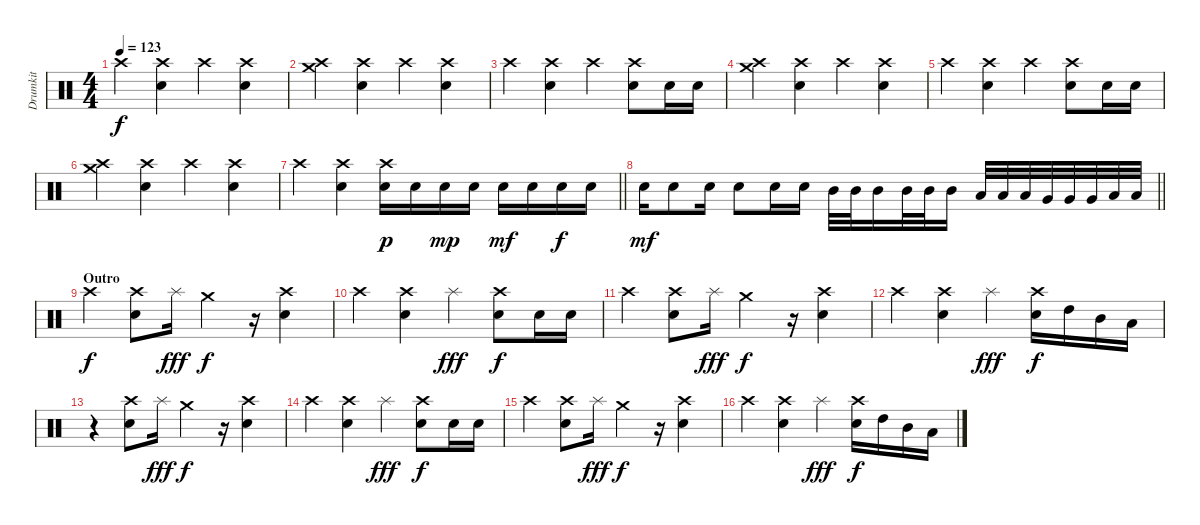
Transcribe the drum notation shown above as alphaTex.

\track ("Drumkit" "Drumkit") {instrument percussion}
\staff {score}
\articulation defaults
\ts (4 4)
\tempo 123
\clef neutral
\ks c "Crash high (hit)".4{dy f}
("Crash high (hit)" "Electric Snare (hit)").4 "Crash high (hit)".4 ("Crash high (hit)" "Electric Snare (hit)").4 |
("Crash medium (hit)" "Crash high (hit)").4 ("Crash high (hit)" "Electric Snare (hit)").4 "Crash high (hit)".4 ("Crash high (hit)" "Electric Snare (hit)").4 |
"Crash high (hit)".4 ("Crash high (hit)" "Electric Snare (hit)").4 "Crash high (hit)".4 ("Crash high (hit)" "Electric Snare (hit)").8 "Electric Snare (hit)".16 "Electric Snare (hit)".16 |
("Crash medium (hit)" "Crash high (hit)").4 ("Crash high (hit)" "Electric Snare (hit)").4 "Crash high (hit)".4 ("Crash high (hit)" "Electric Snare (hit)").4 |
"Crash high (hit)".4 ("Crash high (hit)" "Electric Snare (hit)").4 "Crash high (hit)".4 ("Crash high (hit)" "Electric Snare (hit)").8 "Electric Snare (hit)".16 "Electric Snare (hit)".16 |
("Crash medium (hit)" "Crash high (hit)").4 ("Crash high (hit)" "Electric Snare (hit)").4 "Crash high (hit)".4 ("Crash high (hit)" "Electric Snare (hit)").4 |
\barLineRight lightlight "Crash high (hit)".4
("Crash high (hit)" "Electric Snare (hit)").4 ("Crash high (hit)" "Electric Snare (hit)").16{dy p} "Electric Snare (hit)".16 "Electric Snare (hit)".16{dy mp} "Electric Snare (hit)".16 "Electric Snare (hit)".16{dy mf} "Electric Snare (hit)".16 "Electric Snare (hit)".16{dy f} "Electric Snare (hit)".16 |
\barLineRight lightlight "Electric Snare (hit)".16{dy mf} "Electric Snare (hit)".8 "Electric Snare (hit)".16 "Electric Snare (hit)".8 "Electric Snare (hit)".16 "Electric Snare (hit)".16 "Mid Tom (hit)".32 "Mid Tom (hit)".32 "Mid Tom (hit)".16 "Mid Tom (hit)".32 "Mid Tom (hit)".32 "Mid Tom (hit)".16 "Low Tom (hit)".32 "Low Tom (hit)".32 "Low Tom (hit)".32 "Very Low Tom (hit)".32 "Very Low Tom (hit)".32 "Very Low Tom (hit)".32 "Low Floor Tom (hit)".32 "Low Floor Tom (hit)".32
|
\section ("" "Outro")
"Crash high (hit)".4{dy f} ("Crash high (hit)" "Electric Snare (hit)").8 "Splash (hit)".16{dy fff} "Crash medium (hit)".4{dy f} r.16 ("Crash high (hit)" "Electric Snare (hit)").4 |
"Crash high (hit)".4 ("Crash high (hit)" "Electric Snare (hit)").4 "Splash (hit)".4{dy fff} ("Crash high (hit)" "Electric Snare (hit)").8{dy f} "Electric Snare (hit)".16 "Electric Snare (hit)".16 |
"Crash high (hit)".4 ("Crash high (hit)" "Electric Snare (hit)").8 "Splash (hit)".16{dy fff} "Crash medium (hit)".4{dy f} r.16 ("Crash high (hit)" "Electric Snare (hit)").4 |
"Crash high (hit)".4 ("Crash high (hit)" "Electric Snare (hit)").4 "Splash (hit)".4{dy fff} ("Crash high (hit)" "Electric Snare (hit)").16{dy f} "High Tom (hit)".16 "Mid Tom (hit)".16 "Low Tom (hit)".16 |
r.4 ("Crash high (hit)" "Electric Snare (hit)").8 "Splash (hit)".16{dy fff} "Crash medium (hit)".4{dy f} r.16 ("Crash high (hit)" "Electric Snare (hit)").4 |
"Crash high (hit)".4 ("Crash high (hit)" "Electric Snare (hit)").4 "Splash (hit)".4{dy fff} ("Crash high (hit)" "Electric Snare (hit)").8{dy f} "Electric Snare (hit)".16 "Electric Snare (hit)".16 |
"Crash high (hit)".4 ("Crash high (hit)" "Electric Snare (hit)").8 "Splash (hit)".16{dy fff} "Crash medium (hit)".4{dy f} r.16 ("Crash high (hit)" "Electric Snare (hit)").4 |
"Crash high (hit)".4 ("Crash high (hit)" "Electric Snare (hit)").4 "Splash (hit)".4{dy fff} ("Crash high (hit)" "Electric Snare (hit)").16{dy f} "High Tom (hit)".16 "Mid Tom (hit)".16 "Low Tom (hit)".16
